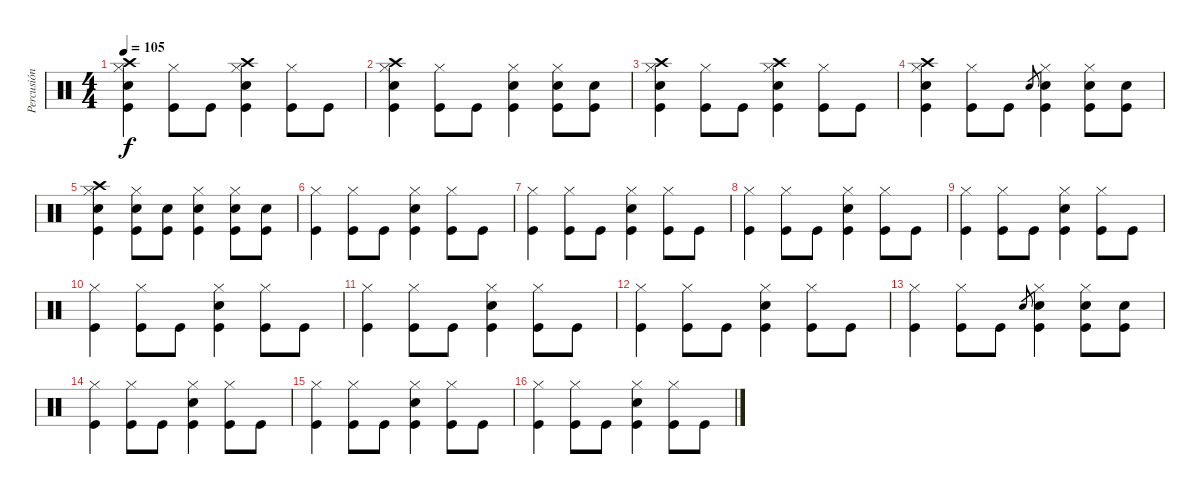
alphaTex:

\track ("Percusión" "Percusión") {instrument percussion}
\staff {score}
\articulation defaults
\ts (4 4)
\tempo 105
\clef neutral
\ks c
("Hi-Hat (closed)" "Crash high (hit)" "Snare (hit) 2" "Kick (hit)").4{dy f} ("Hi-Hat (closed)" "Kick (hit)").8 "Kick (hit)".8 ("Hi-Hat (closed)" "Crash high (hit)" "Snare (hit) 2" "Kick (hit)").4 ("Hi-Hat (closed)" "Kick (hit)").8 "Kick (hit)".8 |
("Hi-Hat (closed)" "Crash high (hit)" "Snare (hit) 2" "Kick (hit)").4 ("Hi-Hat (closed)" "Kick (hit)").8 "Kick (hit)".8 ("Hi-Hat (closed)" "Snare (hit) 2" "Kick (hit)").4 ("Hi-Hat (closed)" "Snare (hit) 2" "Kick (hit)").8 ("Snare (hit) 2" "Kick (hit)").8 |
("Hi-Hat (closed)" "Crash high (hit)" "Snare (hit) 2" "Kick (hit)").4 ("Hi-Hat (closed)" "Kick (hit)").8 "Kick (hit)".8 ("Hi-Hat (closed)" "Crash high (hit)" "Snare (hit) 2" "Kick (hit)").4 ("Hi-Hat (closed)" "Kick (hit)").8 "Kick (hit)".8 |
("Hi-Hat (closed)" "Crash high (hit)" "Snare (hit) 2" "Kick (hit)").4 ("Hi-Hat (closed)" "Kick (hit)").8 "Kick (hit)".8 "Snare (hit) 2".8{gr} ("Hi-Hat (closed)" "Snare (hit) 2" "Kick (hit)").4 ("Hi-Hat (closed)" "Snare (hit) 2" "Kick (hit)").8 ("Snare (hit) 2" "Kick (hit)").8 |
("Hi-Hat (closed)" "Crash high (hit)" "Snare (hit) 2" "Kick (hit)").4 ("Hi-Hat (closed)" "Snare (hit) 2" "Kick (hit)").8 ("Snare (hit) 2" "Kick (hit)").8 ("Hi-Hat (closed)" "Snare (hit) 2" "Kick (hit)").4 ("Hi-Hat (closed)" "Snare (hit) 2" "Kick (hit)").8 ("Snare (hit) 2" "Kick (hit)").8 |
("Hi-Hat (closed)" "Kick (hit)").4 ("Hi-Hat (closed)" "Kick (hit)").8 "Kick (hit)".8 ("Hi-Hat (closed)" "Snare (hit) 2" "Kick (hit)").4 ("Hi-Hat (closed)" "Kick (hit)").8 "Kick (hit)".8 |
("Hi-Hat (closed)" "Kick (hit)").4 ("Hi-Hat (closed)" "Kick (hit)").8 "Kick (hit)".8 ("Hi-Hat (closed)" "Snare (hit) 2" "Kick (hit)").4 ("Hi-Hat (closed)" "Kick (hit)").8 "Kick (hit)".8 |
("Hi-Hat (closed)" "Kick (hit)").4 ("Hi-Hat (closed)" "Kick (hit)").8 "Kick (hit)".8 ("Hi-Hat (closed)" "Snare (hit) 2" "Kick (hit)").4 ("Hi-Hat (closed)" "Kick (hit)").8 "Kick (hit)".8 |
("Hi-Hat (closed)" "Kick (hit)").4 ("Hi-Hat (closed)" "Kick (hit)").8 "Kick (hit)".8 ("Hi-Hat (closed)" "Snare (hit) 2" "Kick (hit)").4 ("Hi-Hat (closed)" "Kick (hit)").8 "Kick (hit)".8 |
("Hi-Hat (closed)" "Kick (hit)").4 ("Hi-Hat (closed)" "Kick (hit)").8 "Kick (hit)".8 ("Hi-Hat (closed)" "Snare (hit) 2" "Kick (hit)").4 ("Hi-Hat (closed)" "Kick (hit)").8 "Kick (hit)".8 |
("Hi-Hat (closed)" "Kick (hit)").4 ("Hi-Hat (closed)" "Kick (hit)").8 "Kick (hit)".8 ("Hi-Hat (closed)" "Snare (hit) 2" "Kick (hit)").4 ("Hi-Hat (closed)" "Kick (hit)").8 "Kick (hit)".8 |
("Hi-Hat (closed)" "Kick (hit)").4 ("Hi-Hat (closed)" "Kick (hit)").8 "Kick (hit)".8 ("Hi-Hat (closed)" "Snare (hit) 2" "Kick (hit)").4 ("Hi-Hat (closed)" "Kick (hit)").8 "Kick (hit)".8 |
("Hi-Hat (closed)" "Kick (hit)").4 ("Hi-Hat (closed)" "Kick (hit)").8 "Kick (hit)".8 "Snare (hit) 2".8{gr} ("Hi-Hat (closed)" "Snare (hit) 2" "Kick (hit)").4 ("Hi-Hat (closed)" "Snare (hit) 2" "Kick (hit)").8 ("Snare (hit) 2" "Kick (hit)").8 |
("Hi-Hat (closed)" "Kick (hit)").4 ("Hi-Hat (closed)" "Kick (hit)").8 "Kick (hit)".8 ("Hi-Hat (closed)" "Snare (hit) 2" "Kick (hit)").4 ("Hi-Hat (closed)" "Kick (hit)").8 "Kick (hit)".8 |
("Hi-Hat (closed)" "Kick (hit)").4 ("Hi-Hat (closed)" "Kick (hit)").8 "Kick (hit)".8 ("Hi-Hat (closed)" "Snare (hit) 2" "Kick (hit)").4 ("Hi-Hat (closed)" "Kick (hit)").8 "Kick (hit)".8 |
("Hi-Hat (closed)" "Kick (hit)").4 ("Hi-Hat (closed)" "Kick (hit)").8 "Kick (hit)".8 ("Hi-Hat (closed)" "Snare (hit) 2" "Kick (hit)").4 ("Hi-Hat (closed)" "Kick (hit)").8 "Kick (hit)".8
